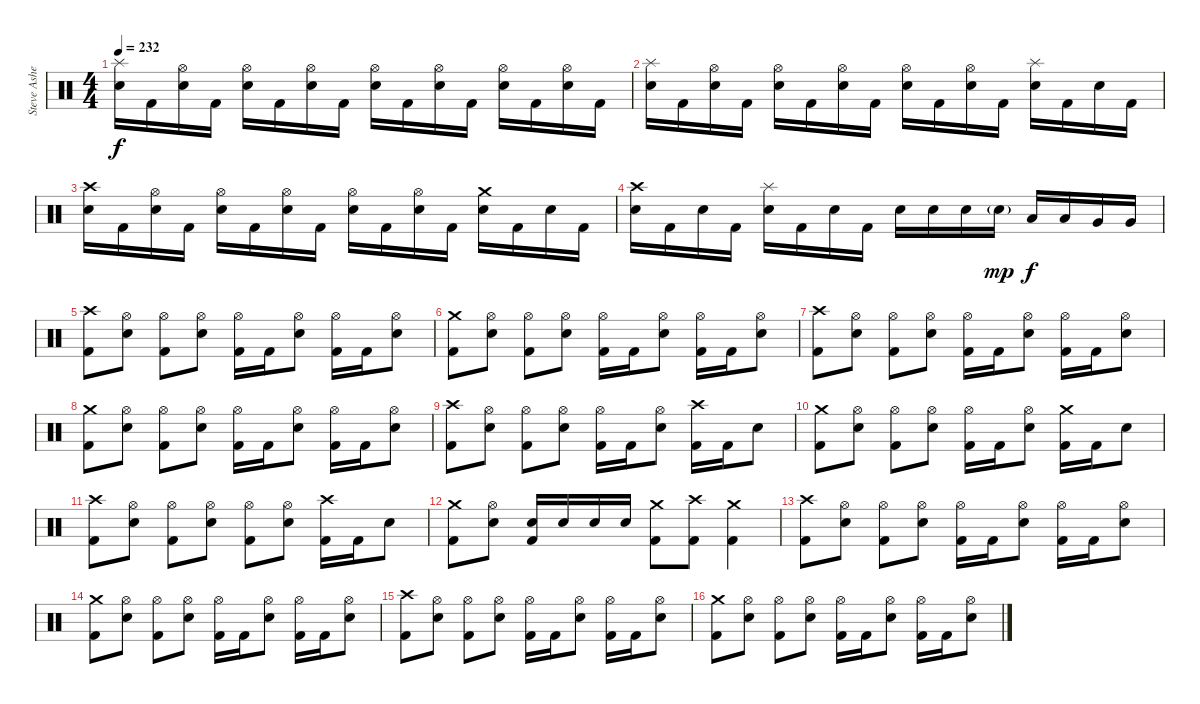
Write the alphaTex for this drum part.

\track ("Steve Asheim" "Steve Ashe") {instrument percussion}
\staff {score}
\articulation defaults
\ts (4 4)
\tempo 232
\clef neutral
\ks c
("Splash (hit)" "Electric Snare (hit)").16{dy f} "Kick (hit) 2".16 ("Hi-Hat (open)" "Electric Snare (hit)").16 "Kick (hit) 2".16 ("Hi-Hat (open)" "Electric Snare (hit)").16 "Kick (hit) 2".16 ("Hi-Hat (open)" "Electric Snare (hit)").16 "Kick (hit) 2".16 ("Hi-Hat (open)" "Electric Snare (hit)").16 "Kick (hit) 2".16 ("Hi-Hat (open)" "Electric Snare (hit)").16 "Kick (hit) 2".16 ("Hi-Hat (open)" "Electric Snare (hit)").16 "Kick (hit) 2".16 ("Hi-Hat (open)" "Electric Snare (hit)").16 "Kick (hit) 2".16 |
("Splash (hit)" "Electric Snare (hit)").16 "Kick (hit) 2".16 ("Hi-Hat (open)" "Electric Snare (hit)").16 "Kick (hit) 2".16 ("Hi-Hat (open)" "Electric Snare (hit)").16 "Kick (hit) 2".16 ("Hi-Hat (open)" "Electric Snare (hit)").16 "Kick (hit) 2".16 ("Hi-Hat (open)" "Electric Snare (hit)").16 "Kick (hit) 2".16 ("Hi-Hat (open)" "Electric Snare (hit)").16 "Kick (hit) 2".16 ("Splash (hit)" "Electric Snare (hit)").16 "Kick (hit) 2".16 "Electric Snare (hit)".16 "Kick (hit) 2".16 |
("Crash high (hit)" "Electric Snare (hit)").16 "Kick (hit) 2".16 ("Hi-Hat (open)" "Electric Snare (hit)").16 "Kick (hit) 2".16 ("Hi-Hat (open)" "Electric Snare (hit)").16 "Kick (hit) 2".16 ("Hi-Hat (open)" "Electric Snare (hit)").16 "Kick (hit) 2".16 ("Hi-Hat (open)" "Electric Snare (hit)").16 "Kick (hit) 2".16 ("Hi-Hat (open)" "Electric Snare (hit)").16 "Kick (hit) 2".16 ("Crash medium (hit)" "Electric Snare (hit)").16 "Kick (hit) 2".16 "Electric Snare (hit)".16 "Kick (hit) 2".16 |
("Crash high (hit)" "Electric Snare (hit)").16 "Kick (hit) 2".16 "Electric Snare (hit)".16 "Kick (hit) 2".16 ("Splash (hit)" "Electric Snare (hit)").16 "Kick (hit) 2".16 "Electric Snare (hit)".16 "Kick (hit) 2".16 "Electric Snare (hit)".16 "Electric Snare (hit)".16 "Electric Snare (hit)".16 "Electric Snare (hit)"{g}.16{dy mp} "Low Tom (hit)".16{dy f} "Low Tom (hit)".16 "Very Low Tom (hit)".16 "Very Low Tom (hit)".16 |
("Crash high (hit)" "Kick (hit) 2").8 ("Hi-Hat (open)" "Electric Snare (hit)").8 ("Hi-Hat (open)" "Kick (hit) 2").8 ("Hi-Hat (open)" "Electric Snare (hit)").8 ("Hi-Hat (open)" "Kick (hit) 2").16 "Kick (hit) 2".16 ("Hi-Hat (open)" "Electric Snare (hit)").8 ("Hi-Hat (open)" "Kick (hit) 2").16 "Kick (hit) 2".16 ("Hi-Hat (open)" "Electric Snare (hit)").8 |
("Crash medium (hit)" "Kick (hit) 2").8 ("Hi-Hat (open)" "Electric Snare (hit)").8 ("Hi-Hat (open)" "Kick (hit) 2").8 ("Hi-Hat (open)" "Electric Snare (hit)").8 ("Hi-Hat (open)" "Kick (hit) 2").16 "Kick (hit) 2".16 ("Hi-Hat (open)" "Electric Snare (hit)").8 ("Hi-Hat (open)" "Kick (hit) 2").16 "Kick (hit) 2".16 ("Hi-Hat (open)" "Electric Snare (hit)").8 |
("Crash high (hit)" "Kick (hit) 2").8 ("Hi-Hat (open)" "Electric Snare (hit)").8 ("Hi-Hat (open)" "Kick (hit) 2").8 ("Hi-Hat (open)" "Electric Snare (hit)").8 ("Hi-Hat (open)" "Kick (hit) 2").16 "Kick (hit) 2".16 ("Hi-Hat (open)" "Electric Snare (hit)").8 ("Hi-Hat (open)" "Kick (hit) 2").16 "Kick (hit) 2".16 ("Hi-Hat (open)" "Electric Snare (hit)").8 |
("Crash medium (hit)" "Kick (hit) 2").8 ("Hi-Hat (open)" "Electric Snare (hit)").8 ("Hi-Hat (open)" "Kick (hit) 2").8 ("Hi-Hat (open)" "Electric Snare (hit)").8 ("Hi-Hat (open)" "Kick (hit) 2").16 "Kick (hit) 2".16 ("Hi-Hat (open)" "Electric Snare (hit)").8 ("Hi-Hat (open)" "Kick (hit) 2").16 "Kick (hit) 2".16 ("Hi-Hat (open)" "Electric Snare (hit)").8 |
("Crash high (hit)" "Kick (hit) 2").8 ("Hi-Hat (open)" "Electric Snare (hit)").8 ("Hi-Hat (open)" "Kick (hit) 2").8 ("Hi-Hat (open)" "Electric Snare (hit)").8 ("Hi-Hat (open)" "Kick (hit) 2").16 "Kick (hit) 2".16 ("Hi-Hat (open)" "Electric Snare (hit)").8 ("Crash high (hit)" "Kick (hit) 2").16 "Kick (hit) 2".16 "Electric Snare (hit)".8 |
("Crash medium (hit)" "Kick (hit) 2").8 ("Hi-Hat (open)" "Electric Snare (hit)").8 ("Hi-Hat (open)" "Kick (hit) 2").8 ("Hi-Hat (open)" "Electric Snare (hit)").8 ("Hi-Hat (open)" "Kick (hit) 2").16 "Kick (hit) 2".16 ("Hi-Hat (open)" "Electric Snare (hit)").8 ("Crash medium (hit)" "Kick (hit) 2").16 "Kick (hit) 2".16 "Electric Snare (hit)".8 |
("Crash high (hit)" "Kick (hit) 2").8 ("Hi-Hat (open)" "Electric Snare (hit)").8 ("Hi-Hat (open)" "Kick (hit) 2").8 ("Hi-Hat (open)" "Electric Snare (hit)").8 ("Hi-Hat (open)" "Kick (hit) 2").8 ("Hi-Hat (open)" "Electric Snare (hit)").8 ("Crash high (hit)" "Kick (hit) 2").16 "Kick (hit) 2".16 "Electric Snare (hit)".8 |
("Crash medium (hit)" "Kick (hit) 2").8 ("Hi-Hat (open)" "Electric Snare (hit)").8 ("Electric Snare (hit)" "Kick (hit) 2").16 "Electric Snare (hit)".16 "Electric Snare (hit)".16 "Electric Snare (hit)".16 ("Crash medium (hit)" "Kick (hit) 2").8 ("Crash high (hit)" "Kick (hit) 2").8 ("Crash medium (hit)" "Kick (hit) 2").4 |
("Crash high (hit)" "Kick (hit) 2").8 ("Hi-Hat (open)" "Electric Snare (hit)").8 ("Hi-Hat (open)" "Kick (hit) 2").8 ("Hi-Hat (open)" "Electric Snare (hit)").8 ("Hi-Hat (open)" "Kick (hit) 2").16 "Kick (hit) 2".16 ("Hi-Hat (open)" "Electric Snare (hit)").8 ("Hi-Hat (open)" "Kick (hit) 2").16 "Kick (hit) 2".16 ("Hi-Hat (open)" "Electric Snare (hit)").8 |
("Crash medium (hit)" "Kick (hit) 2").8 ("Hi-Hat (open)" "Electric Snare (hit)").8 ("Hi-Hat (open)" "Kick (hit) 2").8 ("Hi-Hat (open)" "Electric Snare (hit)").8 ("Hi-Hat (open)" "Kick (hit) 2").16 "Kick (hit) 2".16 ("Hi-Hat (open)" "Electric Snare (hit)").8 ("Hi-Hat (open)" "Kick (hit) 2").16 "Kick (hit) 2".16 ("Hi-Hat (open)" "Electric Snare (hit)").8 |
("Crash high (hit)" "Kick (hit) 2").8 ("Hi-Hat (open)" "Electric Snare (hit)").8 ("Hi-Hat (open)" "Kick (hit) 2").8 ("Hi-Hat (open)" "Electric Snare (hit)").8 ("Hi-Hat (open)" "Kick (hit) 2").16 "Kick (hit) 2".16 ("Hi-Hat (open)" "Electric Snare (hit)").8 ("Hi-Hat (open)" "Kick (hit) 2").16 "Kick (hit) 2".16 ("Hi-Hat (open)" "Electric Snare (hit)").8 |
("Crash medium (hit)" "Kick (hit) 2").8 ("Hi-Hat (open)" "Electric Snare (hit)").8 ("Hi-Hat (open)" "Kick (hit) 2").8 ("Hi-Hat (open)" "Electric Snare (hit)").8 ("Hi-Hat (open)" "Kick (hit) 2").16 "Kick (hit) 2".16 ("Hi-Hat (open)" "Electric Snare (hit)").8 ("Hi-Hat (open)" "Kick (hit) 2").16 "Kick (hit) 2".16 ("Hi-Hat (open)" "Electric Snare (hit)").8
